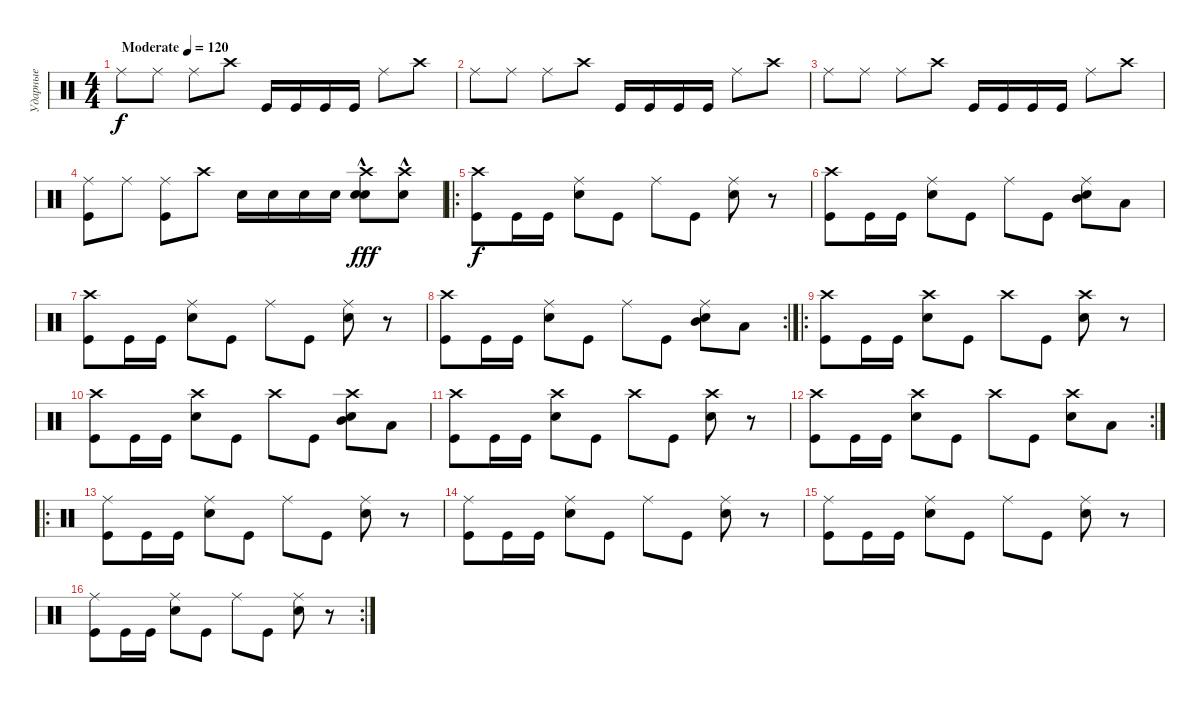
\track ("Ударные" "Ударные") {instrument percussion}
\staff {score}
\articulation defaults
\ts (4 4)
\tempo (120 "Moderate")
\clef neutral
\ks c "Ride (middle)".8{dy f} "Ride (middle)".8 "Ride (middle)".8 "Crash high (hit)".8 "Kick (hit)".16 "Kick (hit)".16 "Kick (hit)".16 "Kick (hit)".16 "Ride (middle)".8 "Crash high (hit)".8
|
"Ride (middle)".8 "Ride (middle)".8 "Ride (middle)".8 "Crash high (hit)".8 "Kick (hit)".16 "Kick (hit)".16 "Kick (hit)".16 "Kick (hit)".16 "Ride (middle)".8 "Crash high (hit)".8 |
"Ride (middle)".8 "Ride (middle)".8 "Ride (middle)".8 "Crash high (hit)".8 "Kick (hit)".16 "Kick (hit)".16 "Kick (hit)".16 "Kick (hit)".16 "Ride (middle)".8 "Crash high (hit)".8 |
("Ride (middle)" "Kick (hit)").8 "Ride (middle)".8 ("Kick (hit)" "Ride (middle)").8 "Crash high (hit)".8 "Snare (hit) 2".16 "Snare (hit) 2".16 "Snare (hit) 2".16 "Snare (hit) 2".16 ("Crash high (hit)" "Snare (hit) 2"{hac} "Snare (hit) 2").8{dy fff} ("Snare (hit) 2"{hac} "Crash high (hit)").8 |
\ro
("Kick (hit)" "Crash high (hit)").8{dy f} "Kick (hit)".16 "Kick (hit)".16 ("Snare (hit) 2" "Ride (middle)").8 "Kick (hit)".8 "Ride (middle)".8 "Kick (hit)".8 ("Snare (hit) 2" "Ride (middle)").8 r.8 |
("Kick (hit)" "Crash high (hit)").8 "Kick (hit)".16 "Kick (hit)".16 ("Snare (hit) 2" "Ride (middle)").8 "Kick (hit)".8 "Ride (middle)".8 "Kick (hit)".8 ("Snare (hit) 2" "Ride (middle)" "Mid Tom (hit)").8 "Low Tom (hit)".8 |
("Kick (hit)" "Crash high (hit)").8 "Kick (hit)".16 "Kick (hit)".16 ("Snare (hit) 2" "Ride (middle)").8 "Kick (hit)".8 "Ride (middle)".8 "Kick (hit)".8 ("Snare (hit) 2" "Ride (middle)").8 r.8 |
\rc 2
("Kick (hit)" "Crash high (hit)").8 "Kick (hit)".16 "Kick (hit)".16 ("Snare (hit) 2" "Ride (middle)").8 "Kick (hit)".8 "Ride (middle)".8 "Kick (hit)".8 ("Snare (hit) 2" "Ride (middle)" "Mid Tom (hit)").8 "Low Tom (hit)".8 |
\ro
("Kick (hit)" "Crash high (hit)").8 "Kick (hit)".16 "Kick (hit)".16 ("Snare (hit) 2" "Crash high (hit)").8 "Kick (hit)".8 "Crash high (hit)".8 "Kick (hit)".8 ("Snare (hit) 2" "Crash high (hit)").8 r.8 |
("Kick (hit)" "Crash high (hit)").8 "Kick (hit)".16 "Kick (hit)".16 ("Snare (hit) 2" "Crash high (hit)").8 "Kick (hit)".8 "Crash high (hit)".8 "Kick (hit)".8 ("Snare (hit) 2" "Crash high (hit)" "Mid Tom (hit)").8 "Low Tom (hit)".8 |
("Kick (hit)" "Crash high (hit)").8 "Kick (hit)".16 "Kick (hit)".16 ("Snare (hit) 2" "Crash high (hit)").8 "Kick (hit)".8 "Crash high (hit)".8 "Kick (hit)".8 ("Snare (hit) 2" "Crash high (hit)").8 r.8 |
\rc 2
("Kick (hit)" "Crash high (hit)").8 "Kick (hit)".16 "Kick (hit)".16 ("Snare (hit) 2" "Crash high (hit)").8 "Kick (hit)".8 "Crash high (hit)".8 "Kick (hit)".8 ("Snare (hit) 2" "Crash high (hit)").8 "Low Tom (hit)".8 |
\ro
("Kick (hit)" "Ride (middle)").8 "Kick (hit)".16 "Kick (hit)".16 ("Snare (hit) 2" "Ride (middle)").8 "Kick (hit)".8 "Ride (middle)".8 "Kick (hit)".8 ("Snare (hit) 2" "Ride (middle)").8 r.8 |
("Kick (hit)" "Ride (middle)").8 "Kick (hit)".16 "Kick (hit)".16 ("Snare (hit) 2" "Ride (middle)").8 "Kick (hit)".8 "Ride (middle)".8 "Kick (hit)".8 ("Snare (hit) 2" "Ride (middle)").8 r.8 |
("Kick (hit)" "Ride (middle)").8 "Kick (hit)".16 "Kick (hit)".16 ("Snare (hit) 2" "Ride (middle)").8 "Kick (hit)".8 "Ride (middle)".8 "Kick (hit)".8 ("Snare (hit) 2" "Ride (middle)").8 r.8 |
\rc 2
("Kick (hit)" "Ride (middle)").8 "Kick (hit)".16 "Kick (hit)".16 ("Snare (hit) 2" "Ride (middle)").8 "Kick (hit)".8 "Ride (middle)".8 "Kick (hit)".8 ("Snare (hit) 2" "Ride (middle)").8 r.8
